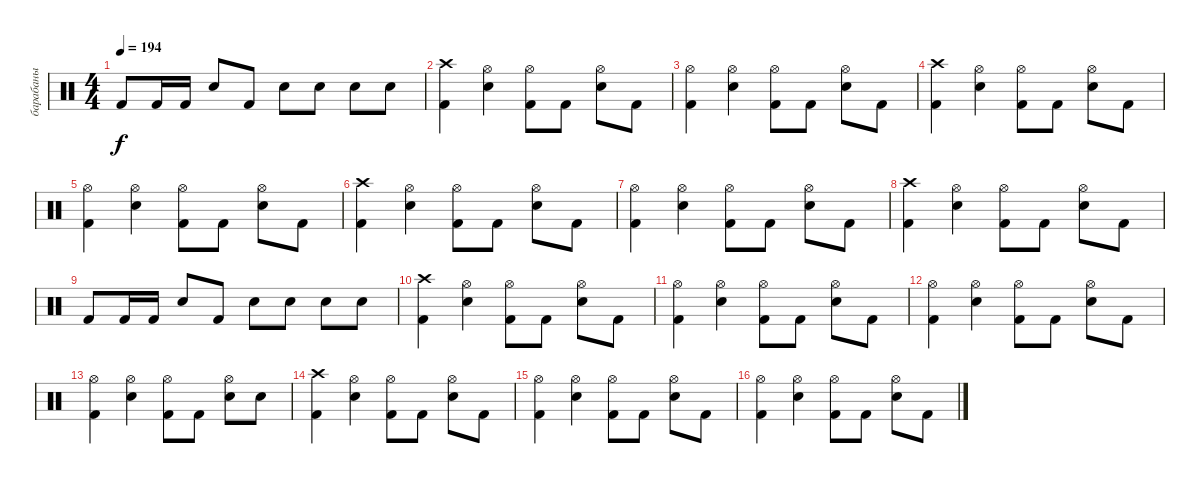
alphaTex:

\track ("барабаны" "барабаны") {instrument percussion}
\staff {score}
\articulation defaults
\ts (4 4)
\tempo 194
\clef neutral
\ks c "Kick (hit) 2".8{dy f} "Kick (hit) 2".16 "Kick (hit) 2".16 "Snare (hit) 2".8 "Kick (hit) 2".8 "Snare (hit) 2".8 "Snare (hit) 2".8 "Snare (hit) 2".8 "Snare (hit) 2".8
|
("Crash high (hit)" "Kick (hit) 2").4 ("Hi-Hat (open)" "Snare (hit) 2").4 ("Hi-Hat (open)" "Kick (hit) 2").8 "Kick (hit) 2".8 ("Hi-Hat (open)" "Snare (hit) 2").8 "Kick (hit) 2".8 |
("Hi-Hat (open)" "Kick (hit) 2").4 ("Hi-Hat (open)" "Snare (hit) 2").4 ("Hi-Hat (open)" "Kick (hit) 2").8 "Kick (hit) 2".8 ("Hi-Hat (open)" "Snare (hit) 2").8 "Kick (hit) 2".8 |
("Crash high (hit)" "Kick (hit) 2").4 ("Hi-Hat (open)" "Snare (hit) 2").4 ("Hi-Hat (open)" "Kick (hit) 2").8 "Kick (hit) 2".8 ("Hi-Hat (open)" "Snare (hit) 2").8 "Kick (hit) 2".8 |
("Hi-Hat (open)" "Kick (hit) 2").4 ("Hi-Hat (open)" "Snare (hit) 2").4 ("Hi-Hat (open)" "Kick (hit) 2").8 "Kick (hit) 2".8 ("Hi-Hat (open)" "Snare (hit) 2").8 "Kick (hit) 2".8 |
("Crash high (hit)" "Kick (hit) 2").4 ("Hi-Hat (open)" "Snare (hit) 2").4 ("Hi-Hat (open)" "Kick (hit) 2").8 "Kick (hit) 2".8 ("Hi-Hat (open)" "Snare (hit) 2").8 "Kick (hit) 2".8 |
("Hi-Hat (open)" "Kick (hit) 2").4 ("Hi-Hat (open)" "Snare (hit) 2").4 ("Hi-Hat (open)" "Kick (hit) 2").8 "Kick (hit) 2".8 ("Hi-Hat (open)" "Snare (hit) 2").8 "Kick (hit) 2".8 |
("Crash high (hit)" "Kick (hit) 2").4 ("Hi-Hat (open)" "Snare (hit) 2").4 ("Hi-Hat (open)" "Kick (hit) 2").8 "Kick (hit) 2".8 ("Hi-Hat (open)" "Snare (hit) 2").8 "Kick (hit) 2".8 |
"Kick (hit) 2".8 "Kick (hit) 2".16 "Kick (hit) 2".16 "Snare (hit) 2".8 "Kick (hit) 2".8 "Snare (hit) 2".8 "Snare (hit) 2".8 "Snare (hit) 2".8 "Snare (hit) 2".8 |
("Crash high (hit)" "Kick (hit) 2").4 ("Hi-Hat (open)" "Snare (hit) 2").4 ("Hi-Hat (open)" "Kick (hit) 2").8 "Kick (hit) 2".8 ("Hi-Hat (open)" "Snare (hit) 2").8 "Kick (hit) 2".8 |
("Hi-Hat (open)" "Kick (hit) 2").4 ("Hi-Hat (open)" "Snare (hit) 2").4 ("Hi-Hat (open)" "Kick (hit) 2").8 "Kick (hit) 2".8 ("Hi-Hat (open)" "Snare (hit) 2").8 "Kick (hit) 2".8 |
("Hi-Hat (open)" "Kick (hit) 2").4 ("Hi-Hat (open)" "Snare (hit) 2").4 ("Hi-Hat (open)" "Kick (hit) 2").8 "Kick (hit) 2".8 ("Hi-Hat (open)" "Snare (hit) 2").8 "Kick (hit) 2".8 |
("Hi-Hat (open)" "Kick (hit) 2").4 ("Hi-Hat (open)" "Snare (hit) 2").4 ("Hi-Hat (open)" "Kick (hit) 2").8 "Kick (hit) 2".8 ("Hi-Hat (open)" "Snare (hit) 2").8 "Snare (hit) 2".8 |
("Crash high (hit)" "Kick (hit) 2").4 ("Hi-Hat (open)" "Snare (hit) 2").4 ("Hi-Hat (open)" "Kick (hit) 2").8 "Kick (hit) 2".8 ("Hi-Hat (open)" "Snare (hit) 2").8 "Kick (hit) 2".8 |
("Hi-Hat (open)" "Kick (hit) 2").4 ("Hi-Hat (open)" "Snare (hit) 2").4 ("Hi-Hat (open)" "Kick (hit) 2").8 "Kick (hit) 2".8 ("Hi-Hat (open)" "Snare (hit) 2").8 "Kick (hit) 2".8 |
("Hi-Hat (open)" "Kick (hit) 2").4 ("Hi-Hat (open)" "Snare (hit) 2").4 ("Hi-Hat (open)" "Kick (hit) 2").8 "Kick (hit) 2".8 ("Hi-Hat (open)" "Snare (hit) 2").8 "Kick (hit) 2".8
